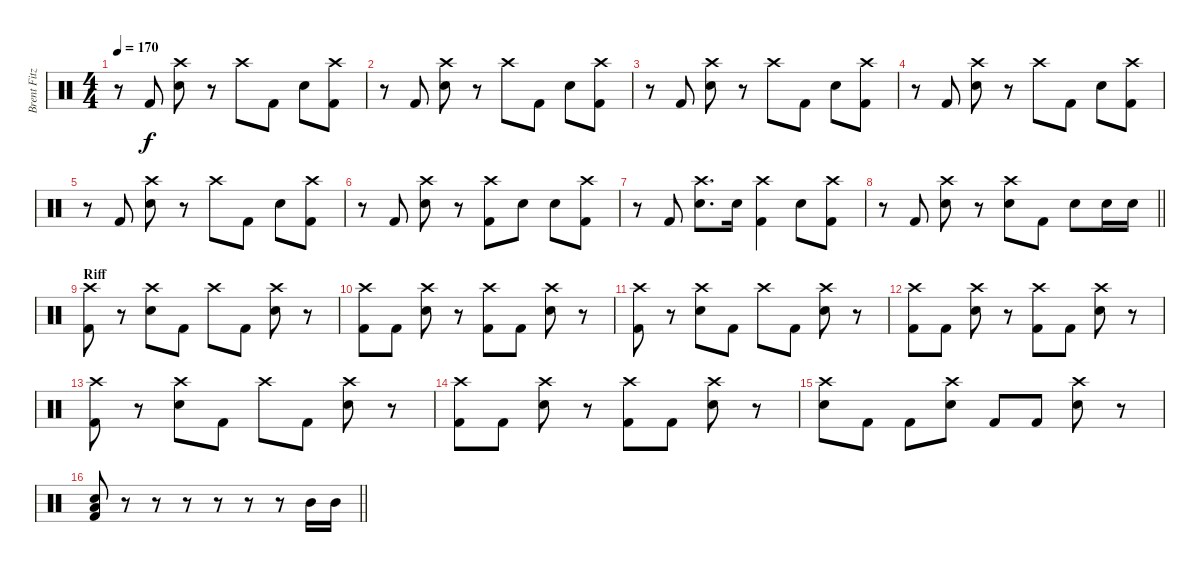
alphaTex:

\track ("Brent Fitz" "Brent Fitz") {instrument percussion}
\staff {score}
\articulation defaults
\ts (4 4)
\tempo 170
\clef neutral
\ks c
r.8{dy f} "Kick (hit) 2".8 ("Crash high (hit)" "Electric Snare (hit)").8 r.8 "Crash high (hit)".8 "Kick (hit) 2".8 "Electric Snare (hit)".8 ("Crash high (hit)" "Kick (hit) 2").8 |
r.8 "Kick (hit) 2".8 ("Crash high (hit)" "Electric Snare (hit)").8 r.8 "Crash high (hit)".8 "Kick (hit) 2".8 "Electric Snare (hit)".8 ("Crash high (hit)" "Kick (hit) 2").8 |
r.8 "Kick (hit) 2".8 ("Crash high (hit)" "Electric Snare (hit)").8 r.8 "Crash high (hit)".8 "Kick (hit) 2".8 "Electric Snare (hit)".8 ("Crash high (hit)" "Kick (hit) 2").8 |
r.8 "Kick (hit) 2".8 ("Crash high (hit)" "Electric Snare (hit)").8 r.8 "Crash high (hit)".8 "Kick (hit) 2".8 "Electric Snare (hit)".8 ("Crash high (hit)" "Kick (hit) 2").8 |
r.8 "Kick (hit) 2".8 ("Crash high (hit)" "Electric Snare (hit)").8 r.8 "Crash high (hit)".8 "Kick (hit) 2".8 "Electric Snare (hit)".8 ("Crash high (hit)" "Kick (hit) 2").8 |
r.8 "Kick (hit) 2".8 ("Crash high (hit)" "Electric Snare (hit)").8 r.8 ("Crash high (hit)" "Kick (hit) 2").8 "Electric Snare (hit)".8 "Electric Snare (hit)".8 ("Crash high (hit)" "Kick (hit) 2").8 |
r.8 "Kick (hit) 2".8 ("Crash high (hit)" "Electric Snare (hit)").8{d} "Electric Snare (hit)".16 ("Crash high (hit)" "Kick (hit) 2").4 "Electric Snare (hit)".8 ("Crash high (hit)" "Kick (hit) 2").8 |
\barLineRight lightlight
r.8 "Kick (hit) 2".8 ("Crash high (hit)" "Electric Snare (hit)").8 r.8 ("Crash high (hit)" "Electric Snare (hit)").8 "Kick (hit) 2".8 "Electric Snare (hit)".8 "Electric Snare (hit)".16 "Electric Snare (hit)".16 |
\section ("" "Riff")
("Crash high (hit)" "Kick (hit) 2").8 r.8 ("Crash high (hit)" "Electric Snare (hit)").8 "Kick (hit) 2".8 "Crash high (hit)".8 "Kick (hit) 2".8 ("Crash high (hit)" "Electric Snare (hit)").8 r.8 |
("Crash high (hit)" "Kick (hit) 2").8 "Kick (hit) 2".8 ("Crash high (hit)" "Electric Snare (hit)").8 r.8 ("Crash high (hit)" "Kick (hit) 2").8 "Kick (hit) 2".8 ("Crash high (hit)" "Electric Snare (hit)").8 r.8 |
("Crash high (hit)" "Kick (hit) 2").8 r.8 ("Crash high (hit)" "Electric Snare (hit)").8 "Kick (hit) 2".8 "Crash high (hit)".8 "Kick (hit) 2".8 ("Crash high (hit)" "Electric Snare (hit)").8 r.8 |
("Crash high (hit)" "Kick (hit) 2").8 "Kick (hit) 2".8 ("Crash high (hit)" "Electric Snare (hit)").8 r.8 ("Crash high (hit)" "Kick (hit) 2").8 "Kick (hit) 2".8 ("Crash high (hit)" "Electric Snare (hit)").8 r.8 |
("Crash high (hit)" "Kick (hit) 2").8 r.8 ("Crash high (hit)" "Electric Snare (hit)").8 "Kick (hit) 2".8 "Crash high (hit)".8 "Kick (hit) 2".8 ("Crash high (hit)" "Electric Snare (hit)").8 r.8 |
("Crash high (hit)" "Kick (hit) 2").8 "Kick (hit) 2".8 ("Crash high (hit)" "Electric Snare (hit)").8 r.8 ("Crash high (hit)" "Kick (hit) 2").8 "Kick (hit) 2".8 ("Crash high (hit)" "Electric Snare (hit)").8 r.8 |
("Crash high (hit)" "Electric Snare (hit)").8 "Kick (hit) 2".8 "Kick (hit) 2".8 ("Crash high (hit)" "Electric Snare (hit)").8 "Kick (hit) 2".8 "Kick (hit) 2".8 ("Crash high (hit)" "Electric Snare (hit)").8 r.8 |
\barLineRight lightlight
("Low Tom (hit)" "Electric Snare (hit)" "Kick (hit) 2").8 r.8 r.8 r.8 r.8 r.8 r.8 "Mid Tom (hit)".16 "Mid Tom (hit)".16
